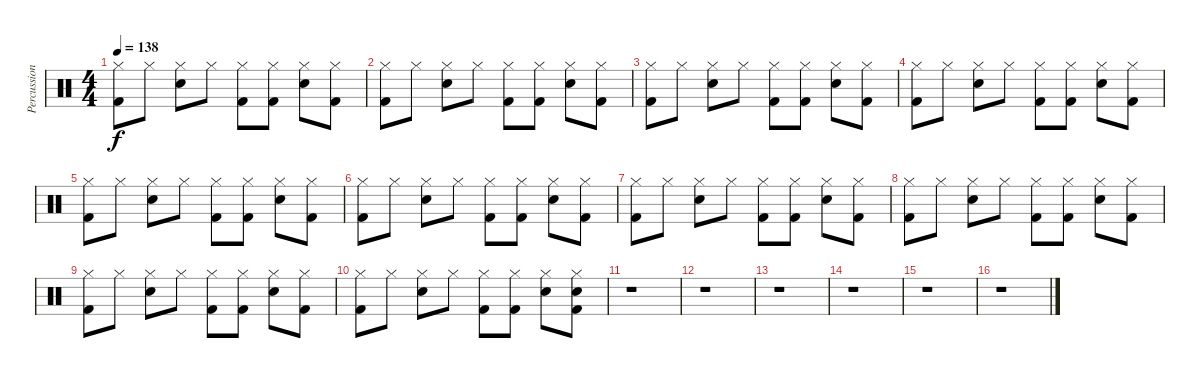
\track ("Percussion" "Percussion") {instrument percussion}
\staff {score}
\articulation defaults
\ts (4 4)
\tempo 138
\clef neutral
\ks c
("Hi-Hat (closed)" "Kick (hit) 2").8{dy f} "Hi-Hat (closed)".8 ("Hi-Hat (closed)" "Snare (hit) 2").8 "Hi-Hat (closed)".8 ("Hi-Hat (closed)" "Kick (hit) 2").8 ("Hi-Hat (closed)" "Kick (hit) 2").8 ("Hi-Hat (closed)" "Snare (hit) 2").8 ("Hi-Hat (closed)" "Kick (hit) 2").8 |
("Hi-Hat (closed)" "Kick (hit) 2").8 "Hi-Hat (closed)".8 ("Hi-Hat (closed)" "Snare (hit) 2").8 "Hi-Hat (closed)".8 ("Hi-Hat (closed)" "Kick (hit) 2").8 ("Hi-Hat (closed)" "Kick (hit) 2").8 ("Hi-Hat (closed)" "Snare (hit) 2").8 ("Hi-Hat (closed)" "Kick (hit) 2").8 |
("Hi-Hat (closed)" "Kick (hit) 2").8 "Hi-Hat (closed)".8 ("Hi-Hat (closed)" "Snare (hit) 2").8 "Hi-Hat (closed)".8 ("Hi-Hat (closed)" "Kick (hit) 2").8 ("Hi-Hat (closed)" "Kick (hit) 2").8 ("Hi-Hat (closed)" "Snare (hit) 2").8 ("Hi-Hat (closed)" "Kick (hit) 2").8 |
("Hi-Hat (closed)" "Kick (hit) 2").8 "Hi-Hat (closed)".8 ("Hi-Hat (closed)" "Snare (hit) 2").8 "Hi-Hat (closed)".8 ("Hi-Hat (closed)" "Kick (hit) 2").8 ("Hi-Hat (closed)" "Kick (hit) 2").8 ("Hi-Hat (closed)" "Snare (hit) 2").8 ("Hi-Hat (closed)" "Kick (hit) 2").8 |
("Hi-Hat (closed)" "Kick (hit) 2").8 "Hi-Hat (closed)".8 ("Hi-Hat (closed)" "Snare (hit) 2").8 "Hi-Hat (closed)".8 ("Hi-Hat (closed)" "Kick (hit) 2").8 ("Hi-Hat (closed)" "Kick (hit) 2").8 ("Hi-Hat (closed)" "Snare (hit) 2").8 ("Hi-Hat (closed)" "Kick (hit) 2").8 |
("Hi-Hat (closed)" "Kick (hit) 2").8 "Hi-Hat (closed)".8 ("Hi-Hat (closed)" "Snare (hit) 2").8 "Hi-Hat (closed)".8 ("Hi-Hat (closed)" "Kick (hit) 2").8 ("Hi-Hat (closed)" "Kick (hit) 2").8 ("Hi-Hat (closed)" "Snare (hit) 2").8 ("Hi-Hat (closed)" "Kick (hit) 2").8 |
("Hi-Hat (closed)" "Kick (hit) 2").8 "Hi-Hat (closed)".8 ("Hi-Hat (closed)" "Snare (hit) 2").8 "Hi-Hat (closed)".8 ("Hi-Hat (closed)" "Kick (hit) 2").8 ("Hi-Hat (closed)" "Kick (hit) 2").8 ("Hi-Hat (closed)" "Snare (hit) 2").8 ("Hi-Hat (closed)" "Kick (hit) 2").8 |
("Hi-Hat (closed)" "Kick (hit) 2").8 "Hi-Hat (closed)".8 ("Hi-Hat (closed)" "Snare (hit) 2").8 "Hi-Hat (closed)".8 ("Hi-Hat (closed)" "Kick (hit) 2").8 ("Hi-Hat (closed)" "Kick (hit) 2").8 ("Hi-Hat (closed)" "Snare (hit) 2").8 ("Hi-Hat (closed)" "Kick (hit) 2").8 |
("Hi-Hat (closed)" "Kick (hit) 2").8 "Hi-Hat (closed)".8 ("Hi-Hat (closed)" "Snare (hit) 2").8 "Hi-Hat (closed)".8 ("Hi-Hat (closed)" "Kick (hit) 2").8 ("Hi-Hat (closed)" "Kick (hit) 2").8 ("Hi-Hat (closed)" "Snare (hit) 2").8 ("Hi-Hat (closed)" "Kick (hit) 2").8 |
("Hi-Hat (closed)" "Kick (hit) 2").8 "Hi-Hat (closed)".8 ("Hi-Hat (closed)" "Snare (hit) 2").8 "Hi-Hat (closed)".8 ("Hi-Hat (closed)" "Kick (hit) 2").8 ("Hi-Hat (closed)" "Kick (hit) 2").8 ("Hi-Hat (closed)" "Snare (hit) 2").8 ("Hi-Hat (closed)" "Snare (hit) 2" "Kick (hit) 2").8 |
r.1 |
r.1 |
r.1 |
r.1 |
r.1 |
r.1
